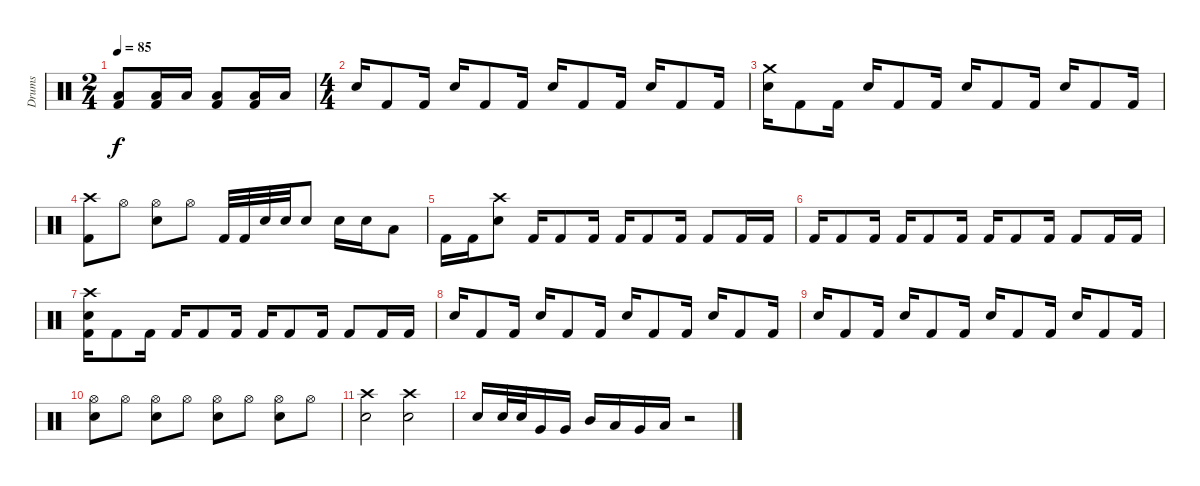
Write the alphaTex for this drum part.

\track ("Drums" "Drums") {instrument percussion}
\staff {score}
\articulation defaults
\ts (2 4)
\tempo 85
\clef neutral
\ks c
("Kick (hit) 2" "Low Floor Tom (hit)").8{dy f} ("Kick (hit) 2" "Low Floor Tom (hit)").16 "Low Floor Tom (hit)".16 ("Kick (hit) 2" "Low Floor Tom (hit)").8 ("Kick (hit) 2" "Low Floor Tom (hit)").16 "Low Floor Tom (hit)".16 |
\ts (4 4)
"Snare (hit) 2".16 "Kick (hit) 2".8 "Kick (hit) 2".16 "Snare (hit) 2".16 "Kick (hit) 2".8 "Kick (hit) 2".16 "Snare (hit) 2".16 "Kick (hit) 2".8 "Kick (hit) 2".16 "Snare (hit) 2".16 "Kick (hit) 2".8 "Kick (hit) 2".16 |
("Crash medium (hit)" "Snare (hit) 2").16 "Kick (hit) 2".8 "Kick (hit) 2".16 "Snare (hit) 2".16 "Kick (hit) 2".8 "Kick (hit) 2".16 "Snare (hit) 2".16 "Kick (hit) 2".8 "Kick (hit) 2".16 "Snare (hit) 2".16 "Kick (hit) 2".8 "Kick (hit) 2".16 |
("Crash high (hit)" "Kick (hit) 2").8 "Hi-Hat (open)".8 ("Snare (hit) 2" "Hi-Hat (open)").8 "Hi-Hat (open)".8 "Kick (hit) 2".32 "Kick (hit) 2".32 "Snare (hit) 2".32 "Snare (hit) 2".32 "Snare (hit) 2".8 "Snare (hit) 2".16 "Snare (hit) 2".16 "Low Tom (hit)".8 |
"Kick (hit) 2".16 "Kick (hit) 2".16 ("Snare (hit) 2" "Crash high (hit)").8 "Kick (hit) 2".16 "Kick (hit) 2".8 "Kick (hit) 2".16 "Kick (hit) 2".16 "Kick (hit) 2".8 "Kick (hit) 2".16 "Kick (hit) 2".8 "Kick (hit) 2".16 "Kick (hit) 2".16 |
"Kick (hit) 2".16 "Kick (hit) 2".8 "Kick (hit) 2".16 "Kick (hit) 2".16 "Kick (hit) 2".8 "Kick (hit) 2".16 "Kick (hit) 2".16 "Kick (hit) 2".8 "Kick (hit) 2".16 "Kick (hit) 2".8 "Kick (hit) 2".16 "Kick (hit) 2".16 |
("Crash high (hit)" "Snare (hit) 2" "Kick (hit) 2").16 "Kick (hit) 2".8 "Kick (hit) 2".16 "Kick (hit) 2".16 "Kick (hit) 2".8 "Kick (hit) 2".16 "Kick (hit) 2".16 "Kick (hit) 2".8 "Kick (hit) 2".16 "Kick (hit) 2".8 "Kick (hit) 2".16 "Kick (hit) 2".16 |
"Snare (hit) 2".16 "Kick (hit) 2".8 "Kick (hit) 2".16 "Snare (hit) 2".16 "Kick (hit) 2".8 "Kick (hit) 2".16 "Snare (hit) 2".16 "Kick (hit) 2".8 "Kick (hit) 2".16 "Snare (hit) 2".16 "Kick (hit) 2".8 "Kick (hit) 2".16 |
"Snare (hit) 2".16 "Kick (hit) 2".8 "Kick (hit) 2".16 "Snare (hit) 2".16 "Kick (hit) 2".8 "Kick (hit) 2".16 "Snare (hit) 2".16 "Kick (hit) 2".8 "Kick (hit) 2".16 "Snare (hit) 2".16 "Kick (hit) 2".8 "Kick (hit) 2".16 |
("Snare (hit) 2" "Hi-Hat (open)").8 "Hi-Hat (open)".8 ("Hi-Hat (open)" "Snare (hit) 2").8 "Hi-Hat (open)".8 ("Snare (hit) 2" "Hi-Hat (open)").8 "Hi-Hat (open)".8 ("Snare (hit) 2" "Hi-Hat (open)").8 "Hi-Hat (open)".8 |
("Snare (hit) 2" "Crash high (hit)").2 ("Snare (hit) 2" "Crash high (hit)").2 |
"Snare (hit) 2".16 "Snare (hit) 2".32 "Snare (hit) 2".32 "Very Low Tom (hit)".16 "Very Low Tom (hit)".16 "Mid Tom (hit)".16 "Low Tom (hit)".16 "Very Low Tom (hit)".16 "Low Floor Tom (hit)".16 r.2
